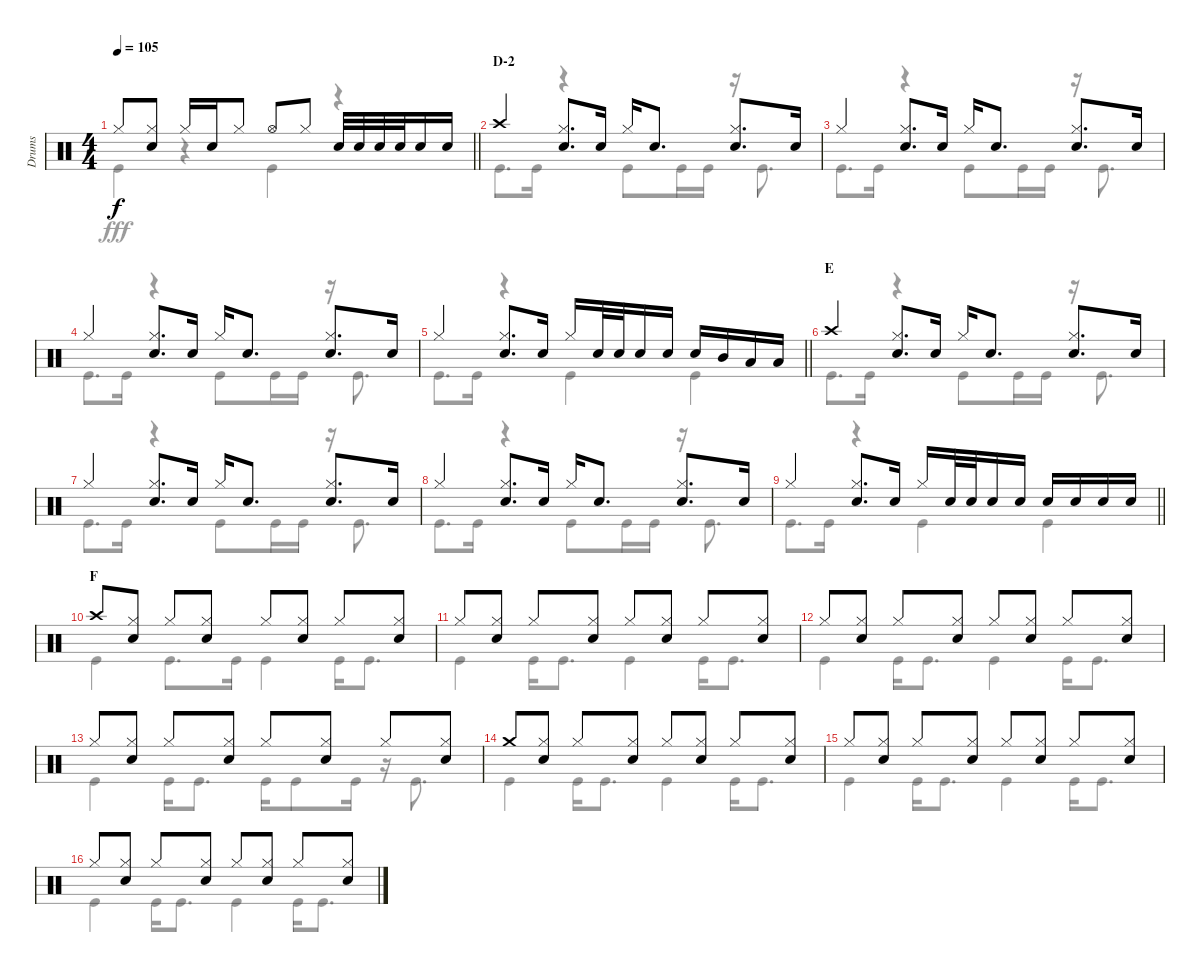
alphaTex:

\track ("Drums" "Drums") {instrument percussion}
\staff {score}
\articulation defaults
\voice
\ts (4 4)
\tempo 105
\clef neutral
\barLineRight lightlight
\ks c "Hi-Hat (closed)".8{dy f}
("Hi-Hat (closed)" "Snare (hit) 2").8 "Hi-Hat (closed)".16 "Snare (hit) 2".16 "Hi-Hat (closed)".8 "Hi-Hat (open)".8 "Hi-Hat (closed)".8 "Snare (hit) 2".32 "Snare (hit) 2".32 "Snare (hit) 2".32 "Snare (hit) 2".32 "Snare (hit) 2".16 "Snare (hit) 2".16 |
\section ("" "D-2")
"Crash high (hit)".4 ("Hi-Hat (closed)" "Snare (hit) 2").8{d} "Snare (hit) 2".16 "Hi-Hat (closed)".16 "Snare (hit) 2".8{d} ("Hi-Hat (closed)" "Snare (hit) 2").8{d} "Snare (hit) 2".16 |
"Hi-Hat (closed)".4 ("Hi-Hat (closed)" "Snare (hit) 2").8{d} "Snare (hit) 2".16 "Hi-Hat (closed)".16 "Snare (hit) 2".8{d} ("Hi-Hat (closed)" "Snare (hit) 2").8{d} "Snare (hit) 2".16 |
"Hi-Hat (closed)".4 ("Hi-Hat (closed)" "Snare (hit) 2").8{d} "Snare (hit) 2".16 "Hi-Hat (closed)".16 "Snare (hit) 2".8{d} ("Hi-Hat (closed)" "Snare (hit) 2").8{d} "Snare (hit) 2".16 |
\barLineRight lightlight "Hi-Hat (closed)".4
("Hi-Hat (closed)" "Snare (hit) 2").8{d} "Snare (hit) 2".16 "Hi-Hat (closed)".16 "Snare (hit) 2".32 "Snare (hit) 2".32 "Snare (hit) 2".16 "Snare (hit) 2".16 "Snare (hit) 2".16 "Mid Tom (hit)".16 "Low Tom (hit)".16 "Low Tom (hit)".16 |
\section ("" "E")
"Crash high (hit)".4 ("Hi-Hat (closed)" "Snare (hit) 2").8{d} "Snare (hit) 2".16 "Hi-Hat (closed)".16 "Snare (hit) 2".8{d} ("Hi-Hat (closed)" "Snare (hit) 2").8{d} "Snare (hit) 2".16 |
"Hi-Hat (closed)".4 ("Hi-Hat (closed)" "Snare (hit) 2").8{d} "Snare (hit) 2".16 "Hi-Hat (closed)".16 "Snare (hit) 2".8{d} ("Hi-Hat (closed)" "Snare (hit) 2").8{d} "Snare (hit) 2".16 |
"Hi-Hat (closed)".4 ("Hi-Hat (closed)" "Snare (hit) 2").8{d} "Snare (hit) 2".16 "Hi-Hat (closed)".16 "Snare (hit) 2".8{d} ("Hi-Hat (closed)" "Snare (hit) 2").8{d} "Snare (hit) 2".16 |
\barLineRight lightlight "Hi-Hat (closed)".4
("Hi-Hat (closed)" "Snare (hit) 2").8{d} "Snare (hit) 2".16 "Hi-Hat (closed)".16 "Snare (hit) 2".32 "Snare (hit) 2".32 "Snare (hit) 2".16 "Snare (hit) 2".16 "Snare (hit) 2".16 "Snare (hit) 2".16 "Snare (hit) 2".16 "Snare (hit) 2".16 |
\section ("" "F")
"Crash high (hit)".8 ("Hi-Hat (closed)" "Snare (hit) 2").8 "Hi-Hat (closed)".8 ("Hi-Hat (closed)" "Snare (hit) 2").8 "Hi-Hat (closed)".8 ("Hi-Hat (closed)" "Snare (hit) 2").8 "Hi-Hat (closed)".8 ("Hi-Hat (closed)" "Snare (hit) 2").8 |
"Hi-Hat (closed)".8 ("Hi-Hat (closed)" "Snare (hit) 2").8 "Hi-Hat (closed)".8 ("Hi-Hat (closed)" "Snare (hit) 2").8 "Hi-Hat (closed)".8 ("Hi-Hat (closed)" "Snare (hit) 2").8 "Hi-Hat (closed)".8 ("Hi-Hat (closed)" "Snare (hit) 2").8 |
"Hi-Hat (closed)".8 ("Hi-Hat (closed)" "Snare (hit) 2").8 "Hi-Hat (closed)".8 ("Hi-Hat (closed)" "Snare (hit) 2").8 "Hi-Hat (closed)".8 ("Hi-Hat (closed)" "Snare (hit) 2").8 "Hi-Hat (closed)".8 ("Hi-Hat (closed)" "Snare (hit) 2").8 |
"Hi-Hat (closed)".8 ("Hi-Hat (closed)" "Snare (hit) 2").8 "Hi-Hat (closed)".8 ("Hi-Hat (closed)" "Snare (hit) 2").8 "Hi-Hat (closed)".8 ("Hi-Hat (closed)" "Snare (hit) 2").8 "Hi-Hat (closed)".8 ("Hi-Hat (closed)" "Snare (hit) 2").8 |
"Crash medium (hit)".8 ("Hi-Hat (closed)" "Snare (hit) 2").8 "Hi-Hat (closed)".8 ("Hi-Hat (closed)" "Snare (hit) 2").8 "Hi-Hat (closed)".8 ("Hi-Hat (closed)" "Snare (hit) 2").8 "Hi-Hat (closed)".8 ("Hi-Hat (closed)" "Snare (hit) 2").8 |
"Hi-Hat (closed)".8 ("Hi-Hat (closed)" "Snare (hit) 2").8 "Hi-Hat (closed)".8 ("Hi-Hat (closed)" "Snare (hit) 2").8 "Hi-Hat (closed)".8 ("Hi-Hat (closed)" "Snare (hit) 2").8 "Hi-Hat (closed)".8 ("Hi-Hat (closed)" "Snare (hit) 2").8 |
"Hi-Hat (closed)".8 ("Hi-Hat (closed)" "Snare (hit) 2").8 "Hi-Hat (closed)".8 ("Hi-Hat (closed)" "Snare (hit) 2").8 "Hi-Hat (closed)".8 ("Hi-Hat (closed)" "Snare (hit) 2").8 "Hi-Hat (closed)".8 ("Hi-Hat (closed)" "Snare (hit) 2").8
\voice
\clef neutral
\ottava regular
\simile none
\barLineRight lightlight
\ks c "Kick (hit)".4{dy fff}
r.4 "Kick (hit)".4 r.4 |
"Kick (hit)".8{d} "Kick (hit)".16 r.4 "Kick (hit)".8 "Kick (hit)".16 "Kick (hit)".16 r.16 "Kick (hit)".8{d} |
"Kick (hit)".8{d} "Kick (hit)".16 r.4 "Kick (hit)".8 "Kick (hit)".16 "Kick (hit)".16 r.16 "Kick (hit)".8{d} |
"Kick (hit)".8{d} "Kick (hit)".16 r.4 "Kick (hit)".8 "Kick (hit)".16 "Kick (hit)".16 r.16 "Kick (hit)".8{d} |
\barLineRight lightlight "Kick (hit)".8{d} "Kick (hit)".16
r.4 "Kick (hit)".4 "Kick (hit)".4 |
"Kick (hit)".8{d} "Kick (hit)".16 r.4 "Kick (hit)".8 "Kick (hit)".16 "Kick (hit)".16 r.16 "Kick (hit)".8{d} |
"Kick (hit)".8{d} "Kick (hit)".16 r.4 "Kick (hit)".8 "Kick (hit)".16 "Kick (hit)".16 r.16 "Kick (hit)".8{d} |
"Kick (hit)".8{d} "Kick (hit)".16 r.4 "Kick (hit)".8 "Kick (hit)".16 "Kick (hit)".16 r.16 "Kick (hit)".8{d} |
\barLineRight lightlight "Kick (hit)".8{d} "Kick (hit)".16
r.4 "Kick (hit)".4 "Kick (hit)".4 |
"Kick (hit)".4 "Kick (hit)".8{d} "Kick (hit)".16 "Kick (hit)".4 "Kick (hit)".16 "Kick (hit)".8{d} |
"Kick (hit)".4 "Kick (hit)".16 "Kick (hit)".8{d} "Kick (hit)".4 "Kick (hit)".16 "Kick (hit)".8{d} |
"Kick (hit)".4 "Kick (hit)".16 "Kick (hit)".8{d} "Kick (hit)".4 "Kick (hit)".16 "Kick (hit)".8{d} |
"Kick (hit)".4 "Kick (hit)".16 "Kick (hit)".8{d} "Kick (hit)".16 "Kick (hit)".8 "Kick (hit)".16 r.16 "Kick (hit)".8{d} |
"Kick (hit)".4 "Kick (hit)".16 "Kick (hit)".8{d} "Kick (hit)".4 "Kick (hit)".16 "Kick (hit)".8{d} |
"Kick (hit)".4 "Kick (hit)".16 "Kick (hit)".8{d} "Kick (hit)".4 "Kick (hit)".16 "Kick (hit)".8{d} |
"Kick (hit)".4 "Kick (hit)".16 "Kick (hit)".8{d} "Kick (hit)".4 "Kick (hit)".16 "Kick (hit)".8{d}
